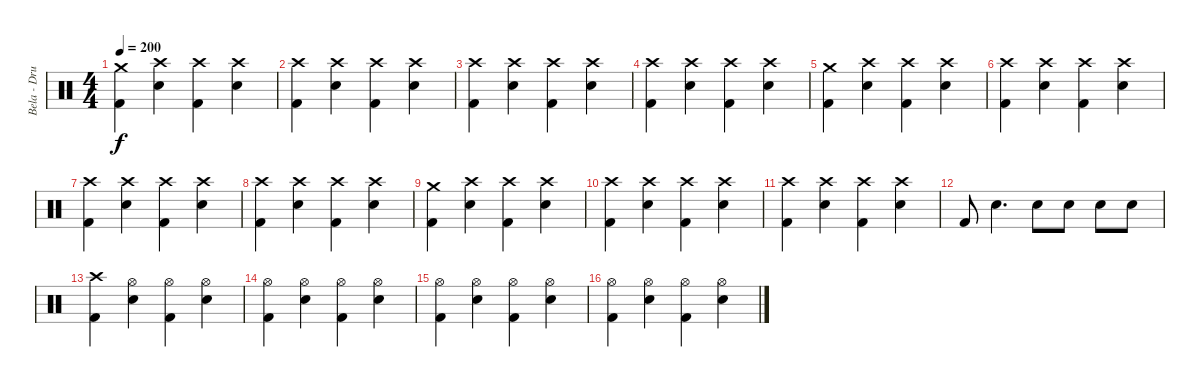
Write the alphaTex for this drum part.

\track ("Bela - Drums" "Bela - Dru") {instrument percussion}
\staff {score}
\articulation defaults
\ts (4 4)
\tempo 200
\clef neutral
\ks c
("Crash medium (hit)" "Kick (hit) 2").4{dy f} ("Crash high (hit)" "Snare (hit) 2").4 ("Crash high (hit)" "Kick (hit) 2").4 ("Crash high (hit)" "Snare (hit) 2").4 |
("Crash high (hit)" "Kick (hit) 2").4 ("Crash high (hit)" "Snare (hit) 2").4 ("Crash high (hit)" "Kick (hit) 2").4 ("Crash high (hit)" "Snare (hit) 2").4 |
("Crash high (hit)" "Kick (hit) 2").4 ("Crash high (hit)" "Snare (hit) 2").4 ("Crash high (hit)" "Kick (hit) 2").4 ("Crash high (hit)" "Snare (hit) 2").4 |
("Crash high (hit)" "Kick (hit) 2").4 ("Crash high (hit)" "Snare (hit) 2").4 ("Crash high (hit)" "Kick (hit) 2").4 ("Crash high (hit)" "Snare (hit) 2").4 |
("Crash medium (hit)" "Kick (hit) 2").4 ("Crash high (hit)" "Snare (hit) 2").4 ("Crash high (hit)" "Kick (hit) 2").4 ("Crash high (hit)" "Snare (hit) 2").4 |
("Crash high (hit)" "Kick (hit) 2").4 ("Crash high (hit)" "Snare (hit) 2").4 ("Crash high (hit)" "Kick (hit) 2").4 ("Crash high (hit)" "Snare (hit) 2").4 |
("Crash high (hit)" "Kick (hit) 2").4 ("Crash high (hit)" "Snare (hit) 2").4 ("Crash high (hit)" "Kick (hit) 2").4 ("Crash high (hit)" "Snare (hit) 2").4 |
("Crash high (hit)" "Kick (hit) 2").4 ("Crash high (hit)" "Snare (hit) 2").4 ("Crash high (hit)" "Kick (hit) 2").4 ("Crash high (hit)" "Snare (hit) 2").4 |
("Crash medium (hit)" "Kick (hit) 2").4 ("Crash high (hit)" "Snare (hit) 2").4 ("Crash high (hit)" "Kick (hit) 2").4 ("Crash high (hit)" "Snare (hit) 2").4 |
("Crash high (hit)" "Kick (hit) 2").4 ("Crash high (hit)" "Snare (hit) 2").4 ("Crash high (hit)" "Kick (hit) 2").4 ("Crash high (hit)" "Snare (hit) 2").4 |
("Crash high (hit)" "Kick (hit) 2").4 ("Crash high (hit)" "Snare (hit) 2").4 ("Crash high (hit)" "Kick (hit) 2").4 ("Crash high (hit)" "Snare (hit) 2").4 |
"Kick (hit) 2".8 "Snare (hit) 2".4{d} "Snare (hit) 2".8 "Snare (hit) 2".8 "Snare (hit) 2".8 "Snare (hit) 2".8 |
("Crash high (hit)" "Kick (hit) 2").4 ("Hi-Hat (open)" "Snare (hit) 2").4 ("Hi-Hat (open)" "Kick (hit) 2").4 ("Hi-Hat (open)" "Snare (hit) 2").4 |
("Hi-Hat (open)" "Kick (hit) 2").4 ("Hi-Hat (open)" "Snare (hit) 2").4 ("Hi-Hat (open)" "Kick (hit) 2").4 ("Hi-Hat (open)" "Snare (hit) 2").4 |
("Hi-Hat (open)" "Kick (hit) 2").4 ("Hi-Hat (open)" "Snare (hit) 2").4 ("Hi-Hat (open)" "Kick (hit) 2").4 ("Hi-Hat (open)" "Snare (hit) 2").4 |
("Hi-Hat (open)" "Kick (hit) 2").4 ("Hi-Hat (open)" "Snare (hit) 2").4 ("Hi-Hat (open)" "Kick (hit) 2").4 ("Hi-Hat (open)" "Snare (hit) 2").4
